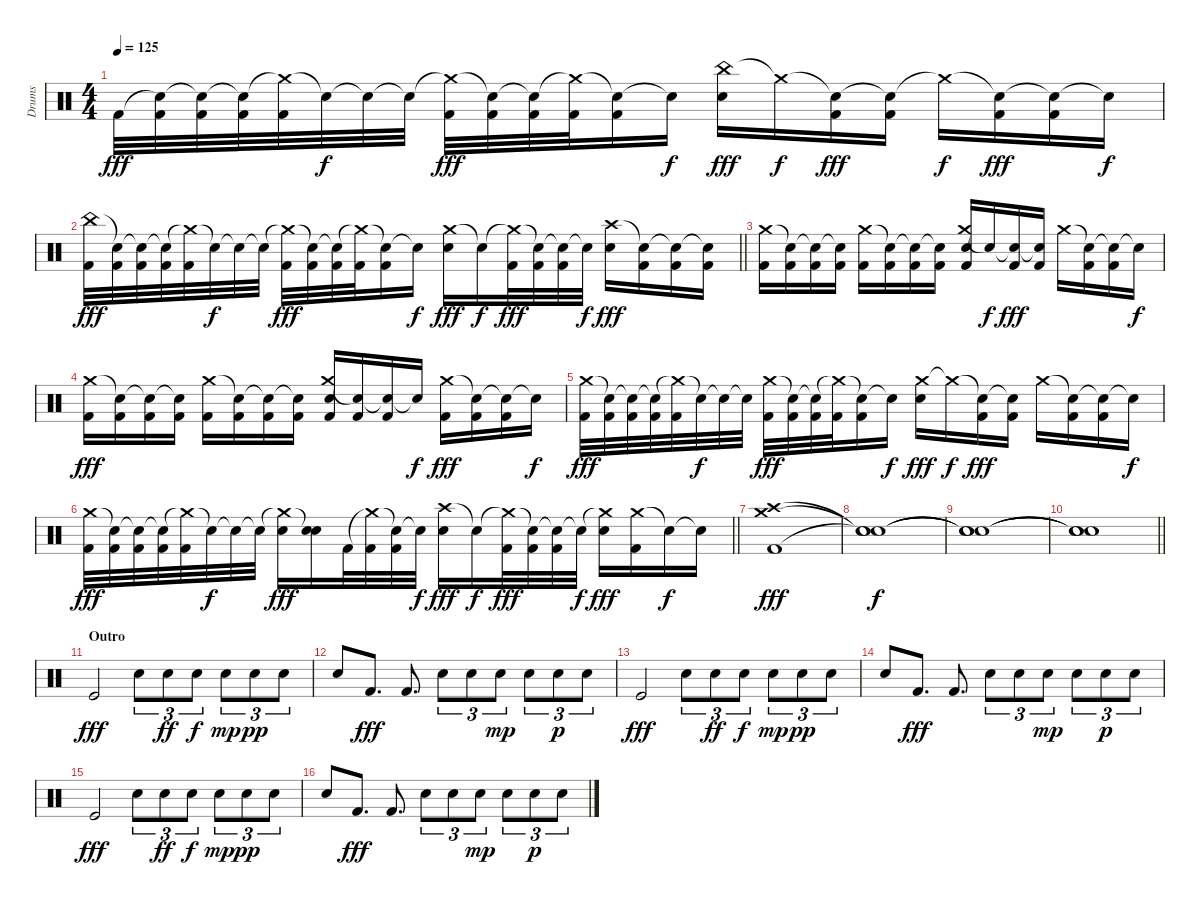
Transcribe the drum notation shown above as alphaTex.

\track ("Drums" "Drums") {instrument percussion}
\staff {score}
\articulation defaults
\ts (4 4)
\tempo 125
\clef neutral
\ks c "Kick (hit) 2".32{dy fff}
("Snare (hit)"{t} "Kick (hit) 2").32 ("Snare (hit)"{t} "Kick (hit) 2").32 ("Snare (hit)"{t} "Kick (hit) 2").32 ("Crash medium (hit)"{t} "Kick (hit) 2").32 "Snare (hit)"{t}.32{dy f} "Snare (hit)"{t}.32 "Snare (hit)"{t}.32 ("Crash medium (hit)"{t} "Kick (hit) 2").32{dy fff} ("Snare (hit)"{t} "Kick (hit) 2").32 ("Snare (hit)"{t} "Kick (hit) 2").32 ("Crash medium (hit)"{t} "Kick (hit) 2").32 ("Snare (hit)"{t} "Kick (hit) 2").16 "Snare (hit)"{t}.16{dy f} ("China (hit)" "Electric Snare (hit)").16{dy fff} "Crash medium (hit)"{t}.16{dy f} ("Snare (hit)"{t} "Kick (hit) 2").16{dy fff} ("Snare (hit)"{t} "Kick (hit) 2").16 "Crash medium (hit)"{t}.16{dy f} ("Snare (hit)"{t} "Kick (hit) 2").16{dy fff} ("Snare (hit)"{t} "Kick (hit) 2").16 "Snare (hit)"{t}.16{dy f} |
\barLineRight lightlight
("China (hit)" "Kick (hit) 2").32{dy fff} ("Snare (hit)"{t} "Kick (hit) 2").32 ("Snare (hit)"{t} "Kick (hit) 2").32 ("Snare (hit)"{t} "Kick (hit) 2").32 ("Crash medium (hit)"{t} "Kick (hit) 2").32 "Snare (hit)"{t}.32{dy f} "Snare (hit)"{t}.32 "Snare (hit)"{t}.32 ("Crash medium (hit)"{t} "Kick (hit) 2").32{dy fff} ("Snare (hit)"{t} "Kick (hit) 2").32 ("Snare (hit)"{t} "Kick (hit) 2").32 ("Crash medium (hit)"{t} "Kick (hit) 2").32 ("Snare (hit)"{t} "Kick (hit) 2").16 "Snare (hit)"{t}.16{dy f} ("Crash medium (hit)" "Electric Snare (hit)").16{dy fff} "Snare (hit)"{t}.16{dy f} ("Crash medium (hit)"{t} "Kick (hit) 2").32{dy fff} ("Snare (hit)"{t} "Kick (hit) 2").32 ("Snare (hit)"{t} "Kick (hit) 2").32 "Snare (hit)"{t}.32{dy f} ("Crash high (hit)" "Electric Snare (hit)").16{dy fff} ("Snare (hit)"{t} "Kick (hit) 2").16 ("Snare (hit)"{t} "Kick (hit) 2").16 ("Snare (hit)"{t} "Kick (hit) 2").16 |
("Crash medium (hit)" "Kick (hit) 2").16 ("Snare (hit)"{t} "Kick (hit) 2").16 ("Snare (hit)"{t} "Kick (hit) 2").16 ("Snare (hit)"{t} "Kick (hit) 2").16 ("Crash medium (hit)" "Kick (hit) 2").16 ("Snare (hit)"{t} "Kick (hit) 2").16 ("Snare (hit)"{t} "Kick (hit) 2").16 ("Snare (hit)"{t} "Kick (hit) 2").16 ("Crash medium (hit)" "Electric Snare (hit)" "Kick (hit) 2").16 "Snare (hit)"{t}.16{dy f} ("Snare (hit)"{t} "Kick (hit) 2").16{dy fff} ("Snare (hit)"{t} "Kick (hit) 2").16 "Crash medium (hit)".16 ("Snare (hit)"{t} "Kick (hit) 2").16 ("Snare (hit)"{t} "Kick (hit) 2").16 "Snare (hit)"{t}.16{dy f} |
("Crash medium (hit)" "Kick (hit) 2").16{dy fff} ("Snare (hit)"{t} "Kick (hit) 2").16 ("Snare (hit)"{t} "Kick (hit) 2").16 ("Snare (hit)"{t} "Kick (hit) 2").16 ("Crash medium (hit)" "Kick (hit) 2").16 ("Snare (hit)"{t} "Kick (hit) 2").16 ("Snare (hit)"{t} "Kick (hit) 2").16 ("Snare (hit)"{t} "Kick (hit) 2").16 ("Crash medium (hit)" "Electric Snare (hit)" "Kick (hit) 2").16 ("Snare (hit)"{t} "Kick (hit) 2").16 ("Snare (hit)"{t} "Kick (hit) 2").16 "Snare (hit)"{t}.16{dy f} ("Crash medium (hit)" "Kick (hit) 2").16{dy fff} ("Snare (hit)"{t} "Kick (hit) 2").16 ("Snare (hit)"{t} "Kick (hit) 2").16 "Snare (hit)"{t}.16{dy f} |
("Crash medium (hit)" "Kick (hit) 2").32{dy fff} ("Snare (hit)"{t} "Kick (hit) 2").32 ("Snare (hit)"{t} "Kick (hit) 2").32 ("Snare (hit)"{t} "Kick (hit) 2").32 ("Crash medium (hit)"{t} "Kick (hit) 2").32 "Snare (hit)"{t}.32{dy f} "Snare (hit)"{t}.32 "Snare (hit)"{t}.32 ("Crash medium (hit)" "Kick (hit) 2").32{dy fff} ("Snare (hit)"{t} "Kick (hit) 2").32 ("Snare (hit)"{t} "Kick (hit) 2").32 ("Crash medium (hit)"{t} "Kick (hit) 2").32 ("Snare (hit)"{t} "Kick (hit) 2").16 "Snare (hit)"{t}.16{dy f} ("Crash medium (hit)" "Electric Snare (hit)").16{dy fff} "Crash medium (hit)"{t}.16{dy f} ("Snare (hit)"{t} "Kick (hit) 2").16{dy fff} ("Snare (hit)"{t} "Kick (hit) 2").16 "Crash medium (hit)".16 ("Snare (hit)"{t} "Kick (hit) 2").16 ("Snare (hit)"{t} "Kick (hit) 2").16 "Snare (hit)"{t}.16{dy f} |
\barLineRight lightlight
("Crash medium (hit)" "Kick (hit) 2").32{dy fff} ("Snare (hit)"{t} "Kick (hit) 2").32 ("Snare (hit)"{t} "Kick (hit) 2").32 ("Snare (hit)"{t} "Kick (hit) 2").32 ("Crash medium (hit)"{t} "Kick (hit) 2").32 "Snare (hit)"{t}.32{dy f} "Snare (hit)"{t}.32 "Snare (hit)"{t}.32 ("Crash medium (hit)"{t} "Electric Snare (hit)").16{dy fff} ("Snare (hit)"{t} "Electric Snare (hit)").16 "Kick (hit) 2".32 ("Crash medium (hit)"{t} "Kick (hit) 2").32 ("Snare (hit)"{t} "Kick (hit) 2").32 "Snare (hit)"{t}.32{dy f} ("Crash high (hit)" "Electric Snare (hit)").16{dy fff} "Snare (hit)"{t}.16{dy f} ("Crash medium (hit)"{t} "Kick (hit) 2").32{dy fff} ("Snare (hit)"{t} "Kick (hit) 2").32 ("Snare (hit)"{t} "Kick (hit) 2").32 "Snare (hit)"{t}.32{dy f} ("Crash medium (hit)"{t} "Electric Snare (hit)").16{dy fff} ("Crash medium (hit)" "Kick (hit) 2").16 "Snare (hit)"{t}.16{dy f} "Snare (hit)"{t}.16 |
("Crash medium (hit)" "Crash high (hit)" "Kick (hit) 2").1{dy fff} |
("Snare (hit)"{t} "Snare (hit)"{t} "Snare (hit)"{t}).1{dy f} |
("Snare (hit)"{t} "Snare (hit)"{t} "Snare (hit)"{t}).1 |
\barLineRight lightlight
("Snare (hit)"{t} "Snare (hit)"{t} "Snare (hit)"{t}).1 |
\section ("" "Outro")
"Kick (hit)".2{dy fff} "Hand Clap (hit)".8{tu (3 2)} "Hand Clap (hit)".8{tu (3 2) dy ff} "Hand Clap (hit)".8{tu (3 2) dy f} "Hand Clap (hit)".8{tu (3 2) dy mp} "Hand Clap (hit)".8{tu (3 2) dy pp} "Hand Clap (hit)".8{tu (3 2)} |
"Hand Clap (hit)".8 "Kick (hit) 2".8{d dy fff} "Kick (hit) 2".8{d} "Hand Clap (hit)".8{tu (3 2)} "Hand Clap (hit)".8{tu (3 2)} "Hand Clap (hit)".8{tu (3 2) dy mp} "Hand Clap (hit)".8{tu (3 2)} "Hand Clap (hit)".8{tu (3 2) dy p} "Hand Clap (hit)".8{tu (3 2)} |
"Kick (hit)".2{dy fff} "Hand Clap (hit)".8{tu (3 2)} "Hand Clap (hit)".8{tu (3 2) dy ff} "Hand Clap (hit)".8{tu (3 2) dy f} "Hand Clap (hit)".8{tu (3 2) dy mp} "Hand Clap (hit)".8{tu (3 2) dy pp} "Hand Clap (hit)".8{tu (3 2)} |
"Hand Clap (hit)".8 "Kick (hit) 2".8{d dy fff} "Kick (hit) 2".8{d} "Hand Clap (hit)".8{tu (3 2)} "Hand Clap (hit)".8{tu (3 2)} "Hand Clap (hit)".8{tu (3 2) dy mp} "Hand Clap (hit)".8{tu (3 2)} "Hand Clap (hit)".8{tu (3 2) dy p} "Hand Clap (hit)".8{tu (3 2)} |
"Kick (hit)".2{dy fff} "Hand Clap (hit)".8{tu (3 2)} "Hand Clap (hit)".8{tu (3 2) dy ff} "Hand Clap (hit)".8{tu (3 2) dy f} "Hand Clap (hit)".8{tu (3 2) dy mp} "Hand Clap (hit)".8{tu (3 2) dy pp} "Hand Clap (hit)".8{tu (3 2)} |
"Hand Clap (hit)".8 "Kick (hit) 2".8{d dy fff} "Kick (hit) 2".8{d} "Hand Clap (hit)".8{tu (3 2)} "Hand Clap (hit)".8{tu (3 2)} "Hand Clap (hit)".8{tu (3 2) dy mp} "Hand Clap (hit)".8{tu (3 2)} "Hand Clap (hit)".8{tu (3 2) dy p} "Hand Clap (hit)".8{tu (3 2)}
